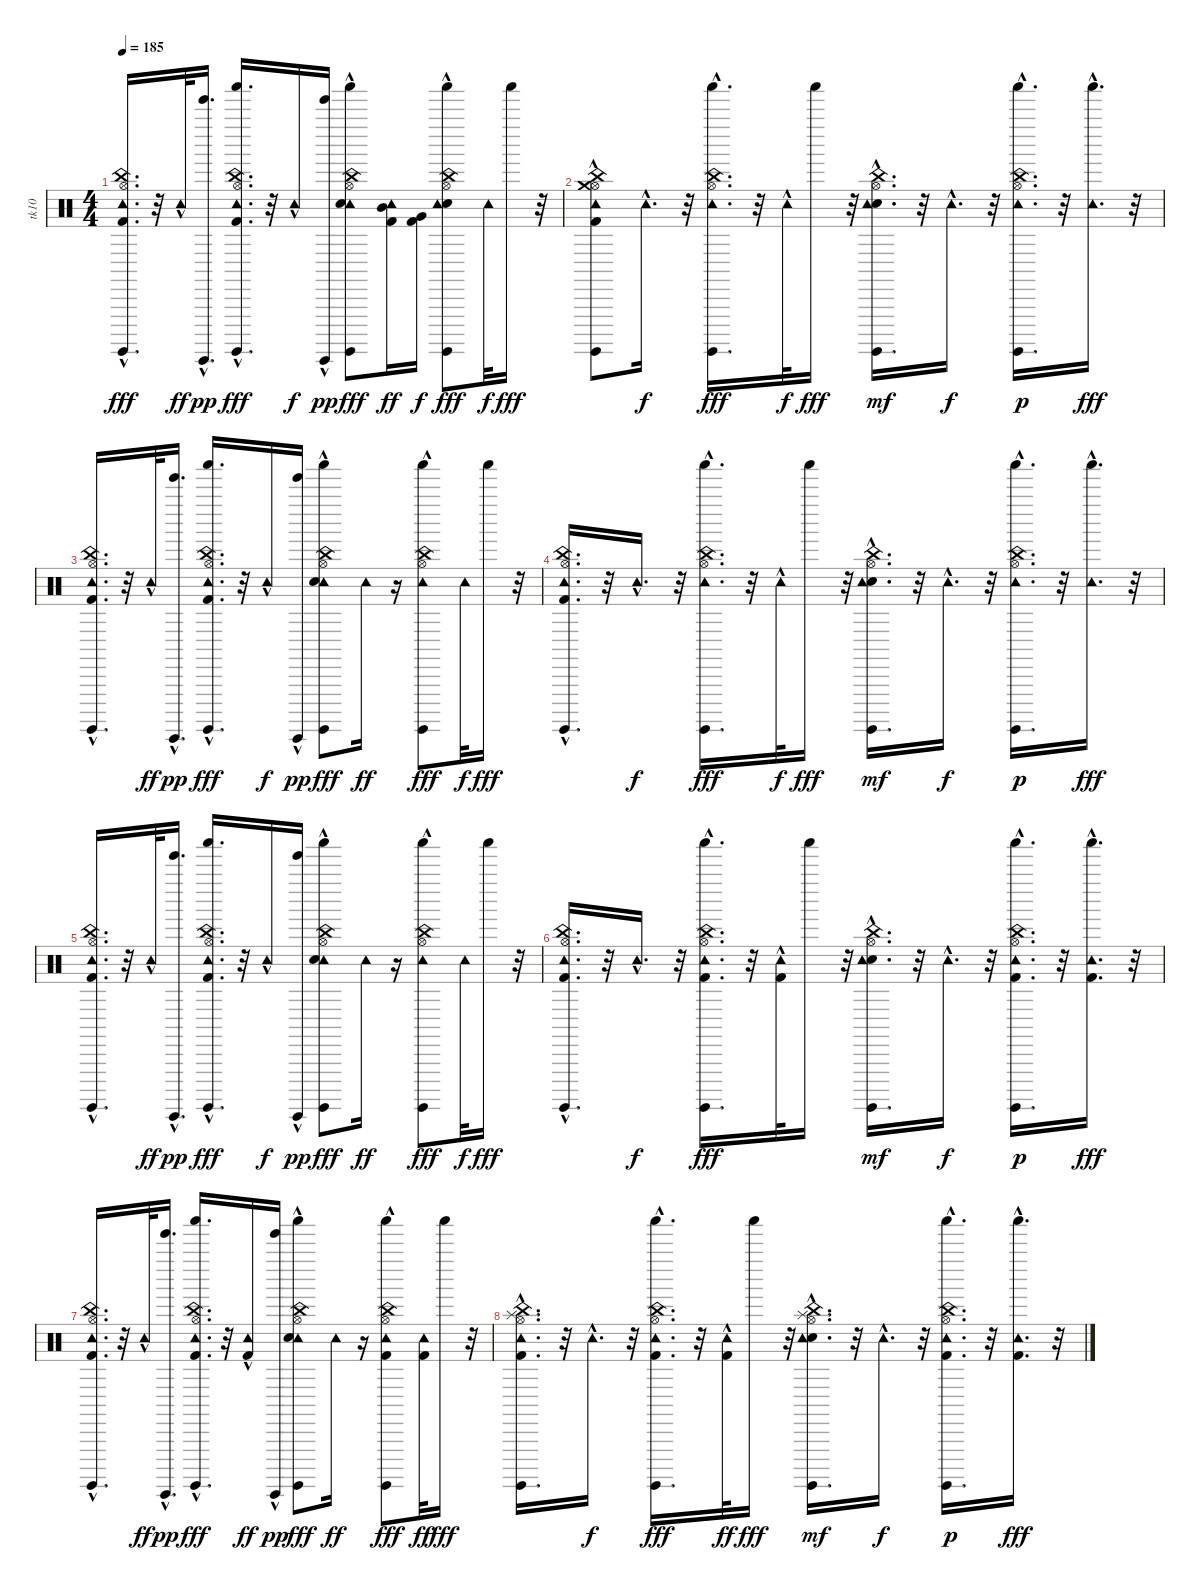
\track ("tk10" "tk10") {instrument percussion}
\staff {score}
\articulation defaults
\ts (4 4)
\tempo 185
\clef neutral
\ks c
("Kick (hit) 2"{hac} "Hi-Hat (open)" "China (hit)" "Surdo (hit)" "Tambourine (hit)"{hac}).16{d dy fff} r.32 "Tambourine (hit)"{hac}.32{dy ff} ("Guiro (hit)" "Tinkle Bell (hit)"{hac}).16{d dy pp} ("Tambourine (hit)"{hac} "Shaker (hit)" "Kick (hit) 2"{hac} "Hi-Hat (open)" "China (hit)" "Surdo (hit)").16{d dy fff} r.32 "Tambourine (hit)"{hac}.16{dy f} ("Guiro (hit)" "Tinkle Bell (hit)"{hac}).16{dy pp} ("Tambourine (hit)"{hac} "Electric Snare (hit)" "Hi-Hat (open)" "China (hit)" "Shaker (hit)"{hac} "Surdo (hit)").8{dy fff} ("Tambourine (hit)" "Mid Tom (hit)" "Kick (hit) 2").16{dy ff} ("Kick (hit) 2" "Very Low Tom (hit)").16{dy f} ("Electric Snare (hit)"{hac} "Tambourine (hit)" "Shaker (hit)" "Hi-Hat (open)" "China (hit)" "Surdo (hit)"{hac}).8{dy fff} "Tambourine (hit)".32{dy f} "Shaker (hit)".16{dy fff} r.32 |
("Kick (hit) 2"{hac} "Hi-Hat (open)" "Crash medium (hit)"{hac} "Surdo (hit)" "China (hit)" "Tambourine (hit)"{hac}).8 "Tambourine (hit)"{hac}.16{d dy f} r.32 ("Tambourine (hit)"{hac} "Shaker (hit)" "Hi-Hat (open)" "China (hit)" "Surdo (hit)").16{d dy fff} r.32 "Tambourine (hit)"{hac}.32{dy f} "Shaker (hit)".16{dy fff} r.32 ("Electric Snare (hit)"{hac} "Hi-Hat (open)" "China (hit)" "Tambourine (hit)"{hac} "Surdo (hit)").16{d dy mf} r.32 "Tambourine (hit)"{hac}.16{d dy f} r.32 ("Shaker (hit)" "Surdo (hit)" "Tambourine (hit)"{hac} "Hi-Hat (open)" "China (hit)").16{d dy p} r.32 ("Tambourine (hit)"{hac} "Shaker (hit)").16{d dy fff} r.32 |
("Kick (hit) 2"{hac} "Hi-Hat (open)" "China (hit)" "Surdo (hit)" "Tambourine (hit)"{hac}).16{d} r.32 "Tambourine (hit)"{hac}.32{dy ff} ("Guiro (hit)" "Tinkle Bell (hit)"{hac}).16{d dy pp} ("Tambourine (hit)"{hac} "Shaker (hit)" "Kick (hit) 2"{hac} "Hi-Hat (open)" "China (hit)" "Surdo (hit)").16{d dy fff} r.32 "Tambourine (hit)"{hac}.16{dy f} ("Guiro (hit)" "Tinkle Bell (hit)"{hac}).16{dy pp} ("Tambourine (hit)"{hac} "Electric Snare (hit)" "Hi-Hat (open)" "China (hit)" "Shaker (hit)"{hac} "Surdo (hit)").8{dy fff} "Tambourine (hit)".16{dy ff} r.16 ("Tambourine (hit)" "Shaker (hit)" "Hi-Hat (open)" "China (hit)" "Surdo (hit)"{hac}).8{dy fff} "Tambourine (hit)".32{dy f} "Shaker (hit)".16{dy fff} r.32 |
("Kick (hit) 2"{hac} "Hi-Hat (open)" "Surdo (hit)" "China (hit)" "Tambourine (hit)"{hac}).16{d} r.32 "Tambourine (hit)"{hac}.16{d dy f} r.32 ("Tambourine (hit)"{hac} "Shaker (hit)" "Hi-Hat (open)" "China (hit)" "Surdo (hit)").16{d dy fff} r.32 "Tambourine (hit)"{hac}.32{dy f} "Shaker (hit)".16{dy fff} r.32 ("Electric Snare (hit)"{hac} "Hi-Hat (open)" "China (hit)" "Tambourine (hit)"{hac} "Surdo (hit)").16{d dy mf} r.32 "Tambourine (hit)"{hac}.16{d dy f} r.32 ("Shaker (hit)" "Surdo (hit)" "Tambourine (hit)"{hac} "Hi-Hat (open)" "China (hit)").16{d dy p} r.32 ("Tambourine (hit)"{hac} "Shaker (hit)").16{d dy fff} r.32 |
("Kick (hit) 2"{hac} "Hi-Hat (open)" "China (hit)" "Surdo (hit)" "Tambourine (hit)"{hac}).16{d} r.32 "Tambourine (hit)"{hac}.32{dy ff} ("Guiro (hit)" "Tinkle Bell (hit)"{hac}).16{d dy pp} ("Tambourine (hit)"{hac} "Shaker (hit)" "Kick (hit) 2"{hac} "Hi-Hat (open)" "China (hit)" "Surdo (hit)").16{d dy fff} r.32 "Tambourine (hit)"{hac}.16{dy f} ("Guiro (hit)" "Tinkle Bell (hit)"{hac}).16{dy pp} ("Tambourine (hit)"{hac} "Electric Snare (hit)" "Hi-Hat (open)" "China (hit)" "Shaker (hit)"{hac} "Surdo (hit)").8{dy fff} "Tambourine (hit)".16{dy ff} r.16 ("Tambourine (hit)" "Shaker (hit)" "Hi-Hat (open)" "China (hit)" "Surdo (hit)"{hac}).8{dy fff} "Tambourine (hit)".32{dy f} "Shaker (hit)".16{dy fff} r.32 |
("Kick (hit) 2"{hac} "Hi-Hat (open)" "Surdo (hit)" "China (hit)" "Tambourine (hit)"{hac}).16{d} r.32 "Tambourine (hit)"{hac}.16{d dy f} r.32 ("Tambourine (hit)"{hac} "Shaker (hit)" "Kick (hit) 2" "Hi-Hat (open)" "China (hit)" "Surdo (hit)").16{d dy fff} r.32 ("Tambourine (hit)"{hac} "Kick (hit) 2"{hac}).32 "Shaker (hit)".16 r.32 ("Electric Snare (hit)"{hac} "Hi-Hat (open)" "China (hit)" "Tambourine (hit)"{hac} "Surdo (hit)").16{d dy mf} r.32 "Tambourine (hit)"{hac}.16{d dy f} r.32 ("Shaker (hit)" "Surdo (hit)" "Tambourine (hit)"{hac} "Kick (hit) 2" "Hi-Hat (open)" "China (hit)").16{d dy p} r.32 ("Tambourine (hit)"{hac} "Kick (hit) 2" "Shaker (hit)").16{d dy fff} r.32 |
("Hi-Hat (open)" "Kick (hit) 2"{hac} "China (hit)" "Surdo (hit)" "Tambourine (hit)"{hac}).16{d} r.32 "Tambourine (hit)"{hac}.32{dy ff} ("Guiro (hit)" "Tinkle Bell (hit)"{hac}).16{d dy pp} ("Tambourine (hit)"{hac} "Shaker (hit)" "Hi-Hat (open)" "Kick (hit) 2" "China (hit)" "Surdo (hit)").16{d dy fff} r.32 ("Tambourine (hit)"{hac} "Kick (hit) 2"{hac}).16{dy ff} ("Guiro (hit)" "Tinkle Bell (hit)"{hac}).16{dy pp} ("Tambourine (hit)"{hac} "Electric Snare (hit)" "Hi-Hat (open)" "China (hit)" "Shaker (hit)"{hac} "Surdo (hit)").8{dy fff} "Tambourine (hit)".16{dy ff} r.16 ("Tambourine (hit)" "Shaker (hit)" "Kick (hit) 2" "Hi-Hat (open)" "China (hit)" "Surdo (hit)"{hac}).8{dy fff} ("Tambourine (hit)" "Kick (hit) 2").32{dy ff} "Shaker (hit)".16{dy fff} r.32 |
("Hi-Hat (open)" "Splash (hit)" "Surdo (hit)" "Kick (hit) 2"{hac} "China (hit)" "Tambourine (hit)"{hac}).16{d} r.32 "Tambourine (hit)"{hac}.16{d dy f} r.32 ("Tambourine (hit)"{hac} "Shaker (hit)" "Hi-Hat (open)" "Kick (hit) 2" "China (hit)" "Surdo (hit)").16{d dy fff} r.32 ("Tambourine (hit)"{hac} "Kick (hit) 2").32{dy ff} "Shaker (hit)".16{dy fff} r.32 ("Electric Snare (hit)"{hac} "Hi-Hat (open)" "Splash (hit)" "China (hit)" "Tambourine (hit)"{hac} "Surdo (hit)").16{d dy mf} r.32 "Tambourine (hit)"{hac}.16{d dy f} r.32 ("Shaker (hit)" "Surdo (hit)" "Tambourine (hit)"{hac} "Kick (hit) 2" "Hi-Hat (open)" "China (hit)").16{d dy p} r.32 ("Tambourine (hit)"{hac} "Kick (hit) 2" "Shaker (hit)").16{d dy fff} r.32
